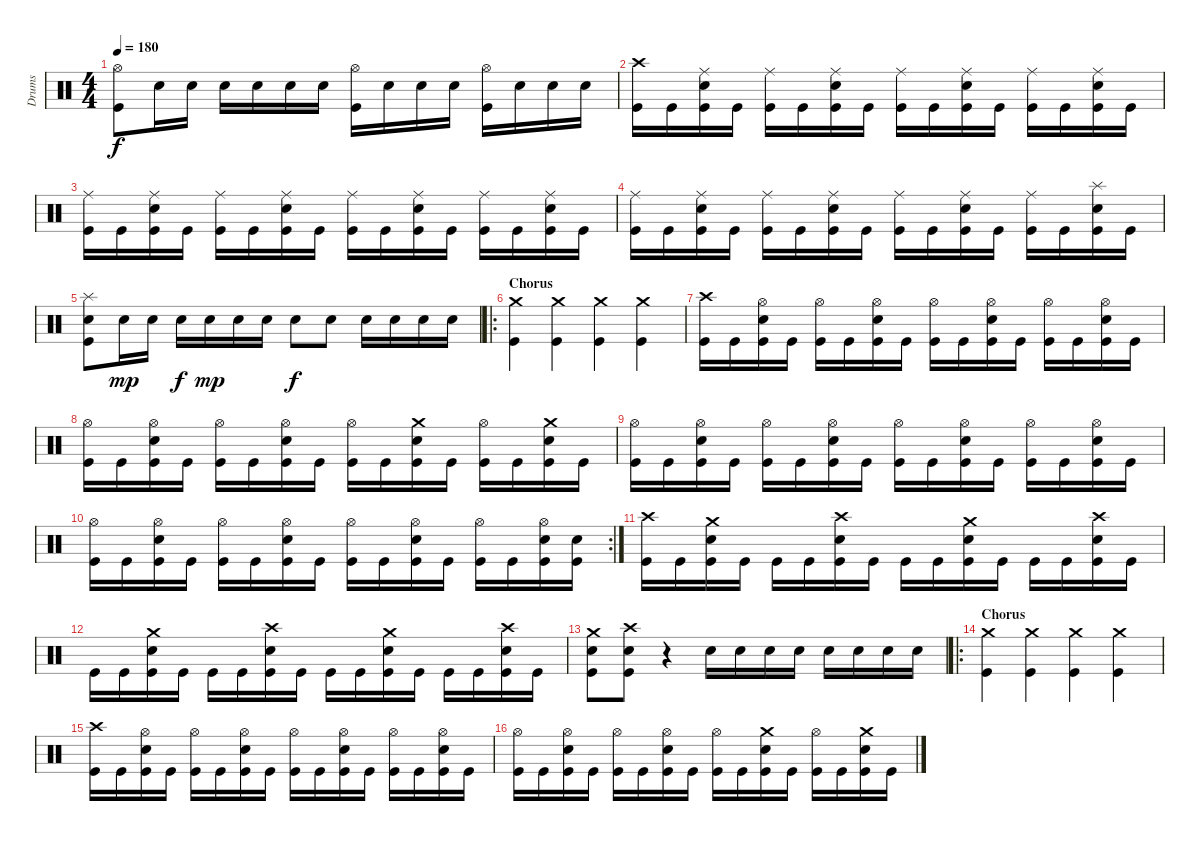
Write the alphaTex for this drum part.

\track ("Drums" "Drums") {instrument percussion}
\staff {score}
\articulation defaults
\ts (4 4)
\tempo 180
\clef neutral
\ks c
("Hi-Hat (open)" "Kick (hit)").8{dy f} "Electric Snare (hit)".16 "Electric Snare (hit)".16 "Electric Snare (hit)".16 "Electric Snare (hit)".16 "Electric Snare (hit)".16 "Electric Snare (hit)".16 ("Hi-Hat (open)" "Kick (hit)").16 "Electric Snare (hit)".16 "Electric Snare (hit)".16 "Electric Snare (hit)".16 ("Hi-Hat (open)" "Kick (hit)").16 "Electric Snare (hit)".16 "Electric Snare (hit)".16 "Electric Snare (hit)".16 |
("Crash high (hit)" "Kick (hit)").16 "Kick (hit)".16 ("Ride (middle)" "Electric Snare (hit)" "Kick (hit)").16 "Kick (hit)".16 ("Ride (middle)" "Kick (hit)").16 "Kick (hit)".16 ("Ride (middle)" "Electric Snare (hit)" "Kick (hit)").16 "Kick (hit)".16 ("Ride (middle)" "Kick (hit)").16 "Kick (hit)".16 ("Ride (middle)" "Electric Snare (hit)" "Kick (hit)").16 "Kick (hit)".16 ("Ride (middle)" "Kick (hit)").16 "Kick (hit)".16 ("Ride (middle)" "Electric Snare (hit)" "Kick (hit)").16 "Kick (hit)".16 |
("Ride (middle)" "Kick (hit)").16 "Kick (hit)".16 ("Ride (middle)" "Electric Snare (hit)" "Kick (hit)").16 "Kick (hit)".16 ("Ride (middle)" "Kick (hit)").16 "Kick (hit)".16 ("Ride (middle)" "Electric Snare (hit)" "Kick (hit)").16 "Kick (hit)".16 ("Ride (middle)" "Kick (hit)").16 "Kick (hit)".16 ("Ride (middle)" "Electric Snare (hit)" "Kick (hit)").16 "Kick (hit)".16 ("Ride (middle)" "Kick (hit)").16 "Kick (hit)".16 ("Ride (middle)" "Electric Snare (hit)" "Kick (hit)").16 "Kick (hit)".16 |
("Ride (middle)" "Kick (hit)").16 "Kick (hit)".16 ("Ride (middle)" "Electric Snare (hit)" "Kick (hit)").16 "Kick (hit)".16 ("Ride (middle)" "Kick (hit)").16 "Kick (hit)".16 ("Ride (middle)" "Electric Snare (hit)" "Kick (hit)").16 "Kick (hit)".16 ("Ride (middle)" "Kick (hit)").16 "Kick (hit)".16 ("Ride (middle)" "Electric Snare (hit)" "Kick (hit)").16 "Kick (hit)".16 ("Ride (middle)" "Kick (hit)").16 "Kick (hit)".16 ("Splash (hit)" "Electric Snare (hit)" "Kick (hit)").16 "Kick (hit)".16 |
("Splash (hit)" "Electric Snare (hit)" "Kick (hit)").8 "Electric Snare (hit)".16{dy mp} "Electric Snare (hit)".16 "Electric Snare (hit)".16{dy f} "Electric Snare (hit)".16{dy mp} "Electric Snare (hit)".16 "Electric Snare (hit)".16 "Electric Snare (hit)".8{dy f} "Electric Snare (hit)".8 "Electric Snare (hit)".16 "Electric Snare (hit)".16 "Electric Snare (hit)".16 "Electric Snare (hit)".16 |
\ro
\section ("" "Chorus")
("Crash medium (hit)" "Kick (hit)").4 ("Crash medium (hit)" "Kick (hit)").4 ("Crash medium (hit)" "Kick (hit)").4 ("Crash medium (hit)" "Kick (hit)").4 |
("Crash high (hit)" "Kick (hit)").16 "Kick (hit)".16 ("Hi-Hat (open)" "Electric Snare (hit)" "Kick (hit)").16 "Kick (hit)".16 ("Hi-Hat (open)" "Kick (hit)").16 "Kick (hit)".16 ("Hi-Hat (open)" "Electric Snare (hit)" "Kick (hit)").16 "Kick (hit)".16 ("Hi-Hat (open)" "Kick (hit)").16 "Kick (hit)".16 ("Hi-Hat (open)" "Electric Snare (hit)" "Kick (hit)").16 "Kick (hit)".16 ("Hi-Hat (open)" "Kick (hit)").16 "Kick (hit)".16 ("Hi-Hat (open)" "Electric Snare (hit)" "Kick (hit)").16 "Kick (hit)".16 |
("Hi-Hat (open)" "Kick (hit)").16 "Kick (hit)".16 ("Hi-Hat (open)" "Electric Snare (hit)" "Kick (hit)").16 "Kick (hit)".16 ("Hi-Hat (open)" "Kick (hit)").16 "Kick (hit)".16 ("Hi-Hat (open)" "Electric Snare (hit)" "Kick (hit)").16 "Kick (hit)".16 ("Hi-Hat (open)" "Kick (hit)").16 "Kick (hit)".16 ("Crash medium (hit)" "Electric Snare (hit)" "Kick (hit)").16 "Kick (hit)".16 ("Hi-Hat (open)" "Kick (hit)").16 "Kick (hit)".16 ("Crash medium (hit)" "Electric Snare (hit)" "Kick (hit)").16 "Kick (hit)".16 |
("Hi-Hat (open)" "Kick (hit)").16 "Kick (hit)".16 ("Hi-Hat (open)" "Electric Snare (hit)" "Kick (hit)").16 "Kick (hit)".16 ("Hi-Hat (open)" "Kick (hit)").16 "Kick (hit)".16 ("Hi-Hat (open)" "Electric Snare (hit)" "Kick (hit)").16 "Kick (hit)".16 ("Hi-Hat (open)" "Kick (hit)").16 "Kick (hit)".16 ("Hi-Hat (open)" "Electric Snare (hit)" "Kick (hit)").16 "Kick (hit)".16 ("Hi-Hat (open)" "Kick (hit)").16 "Kick (hit)".16 ("Hi-Hat (open)" "Electric Snare (hit)" "Kick (hit)").16 "Kick (hit)".16 |
\rc 2
("Hi-Hat (open)" "Kick (hit)").16 "Kick (hit)".16 ("Hi-Hat (open)" "Electric Snare (hit)" "Kick (hit)").16 "Kick (hit)".16 ("Hi-Hat (open)" "Kick (hit)").16 "Kick (hit)".16 ("Hi-Hat (open)" "Electric Snare (hit)" "Kick (hit)").16 "Kick (hit)".16 ("Hi-Hat (open)" "Kick (hit)").16 "Kick (hit)".16 ("Hi-Hat (open)" "Electric Snare (hit)" "Kick (hit)").16 "Kick (hit)".16 ("Hi-Hat (open)" "Kick (hit)").16 "Kick (hit)".16 ("Hi-Hat (open)" "Electric Snare (hit)" "Kick (hit)").16 ("Electric Snare (hit)" "Kick (hit)").16 |
("Crash high (hit)" "Kick (hit)").16 "Kick (hit)".16 ("Crash medium (hit)" "Electric Snare (hit)" "Kick (hit)").16 "Kick (hit)".16 "Kick (hit)".16 "Kick (hit)".16 ("Crash high (hit)" "Electric Snare (hit)" "Kick (hit)").16 "Kick (hit)".16 "Kick (hit)".16 "Kick (hit)".16 ("Crash medium (hit)" "Electric Snare (hit)" "Kick (hit)").16 "Kick (hit)".16 "Kick (hit)".16 "Kick (hit)".16 ("Crash high (hit)" "Electric Snare (hit)" "Kick (hit)").16 "Kick (hit)".16 |
"Kick (hit)".16 "Kick (hit)".16 ("Crash medium (hit)" "Electric Snare (hit)" "Kick (hit)").16 "Kick (hit)".16 "Kick (hit)".16 "Kick (hit)".16 ("Crash high (hit)" "Electric Snare (hit)" "Kick (hit)").16 "Kick (hit)".16 "Kick (hit)".16 "Kick (hit)".16 ("Crash medium (hit)" "Electric Snare (hit)" "Kick (hit)").16 "Kick (hit)".16 "Kick (hit)".16 "Kick (hit)".16 ("Crash high (hit)" "Electric Snare (hit)" "Kick (hit)").16 "Kick (hit)".16 |
("Crash medium (hit)" "Electric Snare (hit)" "Kick (hit)").8 ("Crash high (hit)" "Electric Snare (hit)" "Kick (hit)").8 r.4 "Electric Snare (hit)".16 "Electric Snare (hit)".16 "Electric Snare (hit)".16 "Electric Snare (hit)".16 "Electric Snare (hit)".16 "Electric Snare (hit)".16 "Electric Snare (hit)".16 "Electric Snare (hit)".16 |
\ro
\section ("" "Chorus")
("Crash medium (hit)" "Kick (hit)").4 ("Crash medium (hit)" "Kick (hit)").4 ("Crash medium (hit)" "Kick (hit)").4 ("Crash medium (hit)" "Kick (hit)").4 |
("Crash high (hit)" "Kick (hit)").16 "Kick (hit)".16 ("Hi-Hat (open)" "Electric Snare (hit)" "Kick (hit)").16 "Kick (hit)".16 ("Hi-Hat (open)" "Kick (hit)").16 "Kick (hit)".16 ("Hi-Hat (open)" "Electric Snare (hit)" "Kick (hit)").16 "Kick (hit)".16 ("Hi-Hat (open)" "Kick (hit)").16 "Kick (hit)".16 ("Hi-Hat (open)" "Electric Snare (hit)" "Kick (hit)").16 "Kick (hit)".16 ("Hi-Hat (open)" "Kick (hit)").16 "Kick (hit)".16 ("Hi-Hat (open)" "Electric Snare (hit)" "Kick (hit)").16 "Kick (hit)".16 |
("Hi-Hat (open)" "Kick (hit)").16 "Kick (hit)".16 ("Hi-Hat (open)" "Electric Snare (hit)" "Kick (hit)").16 "Kick (hit)".16 ("Hi-Hat (open)" "Kick (hit)").16 "Kick (hit)".16 ("Hi-Hat (open)" "Electric Snare (hit)" "Kick (hit)").16 "Kick (hit)".16 ("Hi-Hat (open)" "Kick (hit)").16 "Kick (hit)".16 ("Crash medium (hit)" "Electric Snare (hit)" "Kick (hit)").16 "Kick (hit)".16 ("Hi-Hat (open)" "Kick (hit)").16 "Kick (hit)".16 ("Crash medium (hit)" "Electric Snare (hit)" "Kick (hit)").16 "Kick (hit)".16
